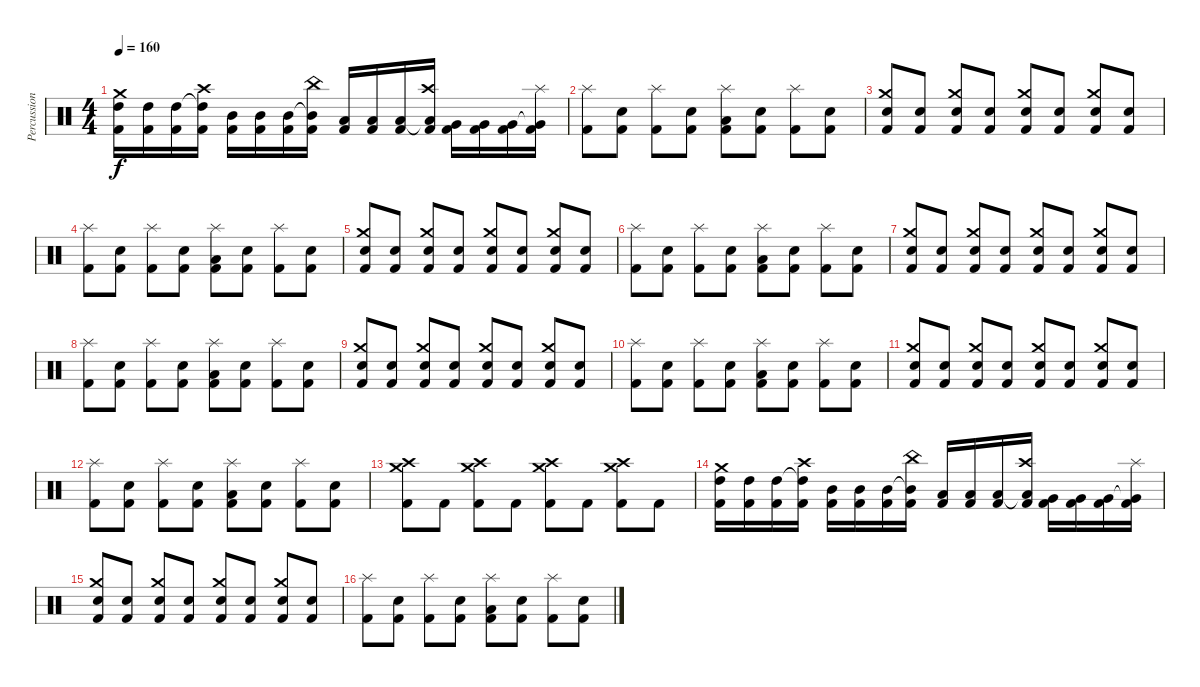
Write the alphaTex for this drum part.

\track ("Percussion" "Percussion") {instrument percussion}
\staff {score}
\articulation defaults
\ts (4 4)
\tempo 160
\clef neutral
\ks c
("Kick (hit) 2" "High Tom (hit)" "Crash medium (hit)").16{dy f} ("Kick (hit) 2" "High Tom (hit)").16 ("Kick (hit) 2" "High Tom (hit)").16 ("Kick (hit) 2" "High Tom (hit)"{t} "Crash high (hit)").16 ("Kick (hit) 2" "Mid Tom (hit)").16 ("Kick (hit) 2" "Mid Tom (hit)").16 ("Kick (hit) 2" "Mid Tom (hit)").16 ("Kick (hit) 2" "Mid Tom (hit)"{t} "China (hit)").16 ("Kick (hit) 2" "Low Tom (hit)").16 ("Kick (hit) 2" "Low Tom (hit)").16 ("Kick (hit) 2" "Low Tom (hit)").16 ("Kick (hit) 2" "Low Tom (hit)"{t} "Crash high (hit)").16 ("Kick (hit) 2" "Very Low Tom (hit)").16 ("Kick (hit) 2" "Very Low Tom (hit)").16 ("Kick (hit) 2" "Very Low Tom (hit)").16 ("Kick (hit) 2" "Very Low Tom (hit)"{t} "Splash (hit)").16 |
("Kick (hit) 2" "Splash (hit)").8 ("Kick (hit) 2" "Snare (hit) 2").8 ("Kick (hit) 2" "Splash (hit)").8 ("Kick (hit) 2" "Snare (hit) 2").8 ("Kick (hit) 2" "Low Tom (hit)" "Splash (hit)").8 ("Kick (hit) 2" "Snare (hit) 2").8 ("Kick (hit) 2" "Splash (hit)").8 ("Kick (hit) 2" "Snare (hit) 2").8 |
("Kick (hit) 2" "Snare (hit) 2" "Crash medium (hit)").8 ("Kick (hit) 2" "Snare (hit) 2").8 ("Kick (hit) 2" "Snare (hit) 2" "Crash medium (hit)").8 ("Kick (hit) 2" "Snare (hit) 2").8 ("Kick (hit) 2" "Snare (hit) 2" "Crash medium (hit)").8 ("Kick (hit) 2" "Snare (hit) 2").8 ("Kick (hit) 2" "Snare (hit) 2" "Crash medium (hit)").8 ("Kick (hit) 2" "Snare (hit) 2").8 |
("Kick (hit) 2" "Splash (hit)").8 ("Kick (hit) 2" "Snare (hit) 2").8 ("Kick (hit) 2" "Splash (hit)").8 ("Kick (hit) 2" "Snare (hit) 2").8 ("Kick (hit) 2" "Low Tom (hit)" "Splash (hit)").8 ("Kick (hit) 2" "Snare (hit) 2").8 ("Kick (hit) 2" "Splash (hit)").8 ("Kick (hit) 2" "Snare (hit) 2").8 |
("Kick (hit) 2" "Snare (hit) 2" "Crash medium (hit)").8 ("Kick (hit) 2" "Snare (hit) 2").8 ("Kick (hit) 2" "Snare (hit) 2" "Crash medium (hit)").8 ("Kick (hit) 2" "Snare (hit) 2").8 ("Kick (hit) 2" "Snare (hit) 2" "Crash medium (hit)").8 ("Kick (hit) 2" "Snare (hit) 2").8 ("Kick (hit) 2" "Snare (hit) 2" "Crash medium (hit)").8 ("Kick (hit) 2" "Snare (hit) 2").8 |
("Kick (hit) 2" "Splash (hit)").8 ("Kick (hit) 2" "Snare (hit) 2").8 ("Kick (hit) 2" "Splash (hit)").8 ("Kick (hit) 2" "Snare (hit) 2").8 ("Kick (hit) 2" "Low Tom (hit)" "Splash (hit)").8 ("Kick (hit) 2" "Snare (hit) 2").8 ("Kick (hit) 2" "Splash (hit)").8 ("Kick (hit) 2" "Snare (hit) 2").8 |
("Kick (hit) 2" "Snare (hit) 2" "Crash medium (hit)").8 ("Kick (hit) 2" "Snare (hit) 2").8 ("Kick (hit) 2" "Snare (hit) 2" "Crash medium (hit)").8 ("Kick (hit) 2" "Snare (hit) 2").8 ("Kick (hit) 2" "Snare (hit) 2" "Crash medium (hit)").8 ("Kick (hit) 2" "Snare (hit) 2").8 ("Kick (hit) 2" "Snare (hit) 2" "Crash medium (hit)").8 ("Kick (hit) 2" "Snare (hit) 2").8 |
("Kick (hit) 2" "Splash (hit)").8 ("Kick (hit) 2" "Snare (hit) 2").8 ("Kick (hit) 2" "Splash (hit)").8 ("Kick (hit) 2" "Snare (hit) 2").8 ("Kick (hit) 2" "Low Tom (hit)" "Splash (hit)").8 ("Kick (hit) 2" "Snare (hit) 2").8 ("Kick (hit) 2" "Splash (hit)").8 ("Kick (hit) 2" "Snare (hit) 2").8 |
("Kick (hit) 2" "Snare (hit) 2" "Crash medium (hit)").8 ("Kick (hit) 2" "Snare (hit) 2").8 ("Kick (hit) 2" "Snare (hit) 2" "Crash medium (hit)").8 ("Kick (hit) 2" "Snare (hit) 2").8 ("Kick (hit) 2" "Snare (hit) 2" "Crash medium (hit)").8 ("Kick (hit) 2" "Snare (hit) 2").8 ("Kick (hit) 2" "Snare (hit) 2" "Crash medium (hit)").8 ("Kick (hit) 2" "Snare (hit) 2").8 |
("Kick (hit) 2" "Splash (hit)").8 ("Kick (hit) 2" "Snare (hit) 2").8 ("Kick (hit) 2" "Splash (hit)").8 ("Kick (hit) 2" "Snare (hit) 2").8 ("Kick (hit) 2" "Low Tom (hit)" "Splash (hit)").8 ("Kick (hit) 2" "Snare (hit) 2").8 ("Kick (hit) 2" "Splash (hit)").8 ("Kick (hit) 2" "Snare (hit) 2").8 |
("Kick (hit) 2" "Snare (hit) 2" "Crash medium (hit)").8 ("Kick (hit) 2" "Snare (hit) 2").8 ("Kick (hit) 2" "Snare (hit) 2" "Crash medium (hit)").8 ("Kick (hit) 2" "Snare (hit) 2").8 ("Kick (hit) 2" "Snare (hit) 2" "Crash medium (hit)").8 ("Kick (hit) 2" "Snare (hit) 2").8 ("Kick (hit) 2" "Snare (hit) 2" "Crash medium (hit)").8 ("Kick (hit) 2" "Snare (hit) 2").8 |
("Kick (hit) 2" "Splash (hit)").8 ("Kick (hit) 2" "Snare (hit) 2").8 ("Kick (hit) 2" "Splash (hit)").8 ("Kick (hit) 2" "Snare (hit) 2").8 ("Kick (hit) 2" "Low Tom (hit)" "Splash (hit)").8 ("Kick (hit) 2" "Snare (hit) 2").8 ("Kick (hit) 2" "Splash (hit)").8 ("Kick (hit) 2" "Snare (hit) 2").8 |
("Kick (hit) 2" "Crash medium (hit)" "Crash high (hit)").8 "Kick (hit) 2".8 ("Kick (hit) 2" "Crash medium (hit)" "Crash high (hit)").8 "Kick (hit) 2".8 ("Kick (hit) 2" "Crash medium (hit)" "Crash high (hit)").8 "Kick (hit) 2".8 ("Kick (hit) 2" "Crash medium (hit)" "Crash high (hit)").8 "Kick (hit) 2".8 |
("Kick (hit) 2" "High Tom (hit)" "Crash medium (hit)").16 ("Kick (hit) 2" "High Tom (hit)").16 ("Kick (hit) 2" "High Tom (hit)").16 ("Kick (hit) 2" "High Tom (hit)"{t} "Crash high (hit)").16 ("Kick (hit) 2" "Mid Tom (hit)").16 ("Kick (hit) 2" "Mid Tom (hit)").16 ("Kick (hit) 2" "Mid Tom (hit)").16 ("Kick (hit) 2" "Mid Tom (hit)"{t} "China (hit)").16 ("Kick (hit) 2" "Low Tom (hit)").16 ("Kick (hit) 2" "Low Tom (hit)").16 ("Kick (hit) 2" "Low Tom (hit)").16 ("Kick (hit) 2" "Low Tom (hit)"{t} "Crash high (hit)").16 ("Kick (hit) 2" "Very Low Tom (hit)").16 ("Kick (hit) 2" "Very Low Tom (hit)").16 ("Kick (hit) 2" "Very Low Tom (hit)").16 ("Kick (hit) 2" "Very Low Tom (hit)"{t} "Splash (hit)").16 |
("Kick (hit) 2" "Snare (hit) 2" "Crash medium (hit)").8 ("Kick (hit) 2" "Snare (hit) 2").8 ("Kick (hit) 2" "Snare (hit) 2" "Crash medium (hit)").8 ("Kick (hit) 2" "Snare (hit) 2").8 ("Kick (hit) 2" "Snare (hit) 2" "Crash medium (hit)").8 ("Kick (hit) 2" "Snare (hit) 2").8 ("Kick (hit) 2" "Snare (hit) 2" "Crash medium (hit)").8 ("Kick (hit) 2" "Snare (hit) 2").8 |
("Kick (hit) 2" "Splash (hit)").8 ("Kick (hit) 2" "Snare (hit) 2").8 ("Kick (hit) 2" "Splash (hit)").8 ("Kick (hit) 2" "Snare (hit) 2").8 ("Kick (hit) 2" "Low Tom (hit)" "Splash (hit)").8 ("Kick (hit) 2" "Snare (hit) 2").8 ("Kick (hit) 2" "Splash (hit)").8 ("Kick (hit) 2" "Snare (hit) 2").8
